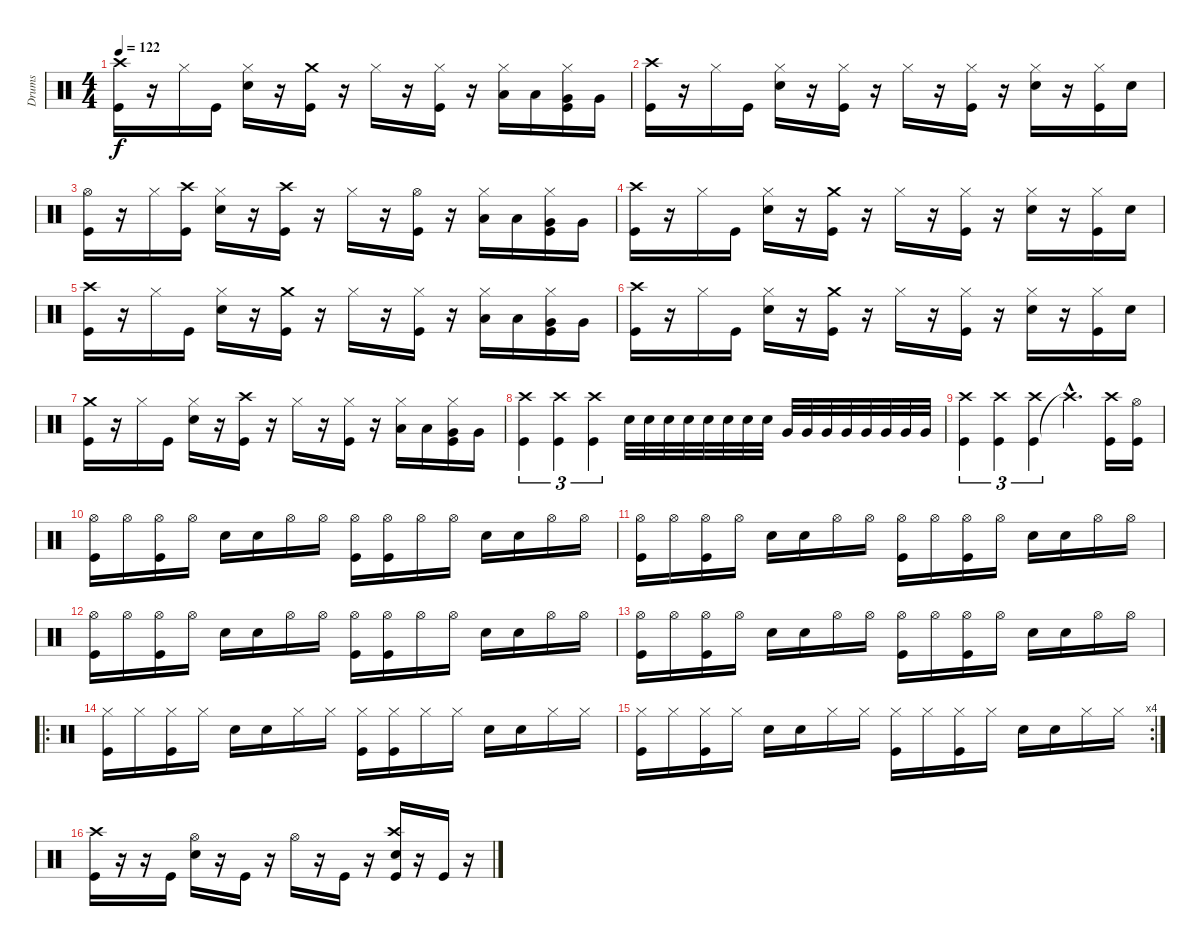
\track ("Drums" "Drums") {instrument percussion}
\staff {score}
\articulation defaults
\ts (4 4)
\tempo 122
\clef neutral
\ks c
("Kick (hit)" "Crash high (hit)").16{dy f} r.16 "Hi-Hat (closed)".16 "Kick (hit)".16 ("Snare (hit) 2" "Hi-Hat (closed)").16 r.16 ("Kick (hit)" "Crash medium (hit)").16 r.16 "Hi-Hat (closed)".16 r.16 ("Kick (hit)" "Hi-Hat (closed)").16 r.16 ("Low Tom (hit)" "Hi-Hat (closed)").16 "Low Tom (hit)".16 ("Very Low Tom (hit)" "Kick (hit)" "Hi-Hat (closed)").16 "Very Low Tom (hit)".16 |
("Kick (hit)" "Crash high (hit)").16 r.16 "Hi-Hat (closed)".16 "Kick (hit)".16 ("Snare (hit) 2" "Hi-Hat (closed)").16 r.16 ("Kick (hit)" "Hi-Hat (closed)").16 r.16 "Hi-Hat (closed)".16 r.16 ("Kick (hit)" "Hi-Hat (closed)").16 r.16 ("Snare (hit) 2" "Hi-Hat (closed)").16 r.16 ("Kick (hit)" "Hi-Hat (closed)").16 "Snare (hit) 2".16 |
("Kick (hit)" "Hi-Hat (open)").16 r.16 "Hi-Hat (closed)".16 ("Kick (hit)" "Crash high (hit)").16 ("Snare (hit) 2" "Hi-Hat (closed)").16 r.16 ("Kick (hit)" "Crash high (hit)").16 r.16 "Hi-Hat (closed)".16 r.16 ("Kick (hit)" "Hi-Hat (open)").16 r.16 ("Low Tom (hit)" "Hi-Hat (closed)").16 "Low Tom (hit)".16 ("Very Low Tom (hit)" "Kick (hit)" "Hi-Hat (closed)").16 "Very Low Tom (hit)".16 |
("Kick (hit)" "Crash high (hit)").16 r.16 "Hi-Hat (closed)".16 "Kick (hit)".16 ("Snare (hit) 2" "Hi-Hat (closed)").16 r.16 ("Kick (hit)" "Crash medium (hit)").16 r.16 "Hi-Hat (closed)".16 r.16 ("Kick (hit)" "Hi-Hat (closed)").16 r.16 ("Snare (hit) 2" "Hi-Hat (closed)").16 r.16 ("Kick (hit)" "Hi-Hat (closed)").16 "Snare (hit) 2".16 |
("Kick (hit)" "Crash high (hit)").16 r.16 "Hi-Hat (closed)".16 "Kick (hit)".16 ("Snare (hit) 2" "Hi-Hat (closed)").16 r.16 ("Kick (hit)" "Crash medium (hit)").16 r.16 "Hi-Hat (closed)".16 r.16 ("Kick (hit)" "Hi-Hat (closed)").16 r.16 ("Low Tom (hit)" "Hi-Hat (closed)").16 "Low Tom (hit)".16 ("Very Low Tom (hit)" "Kick (hit)" "Hi-Hat (closed)").16 "Very Low Tom (hit)".16 |
("Kick (hit)" "Crash high (hit)").16 r.16 "Hi-Hat (closed)".16 "Kick (hit)".16 ("Snare (hit) 2" "Hi-Hat (closed)").16 r.16 ("Kick (hit)" "Crash medium (hit)").16 r.16 "Hi-Hat (closed)".16 r.16 ("Kick (hit)" "Hi-Hat (closed)").16 r.16 ("Snare (hit) 2" "Hi-Hat (closed)").16 r.16 ("Kick (hit)" "Hi-Hat (closed)").16 "Snare (hit) 2".16 |
("Kick (hit)" "Crash medium (hit)").16 r.16 "Hi-Hat (closed)".16 "Kick (hit)".16 ("Snare (hit) 2" "Hi-Hat (closed)").16 r.16 ("Kick (hit)" "Crash high (hit)").16 r.16 "Hi-Hat (closed)".16 r.16 ("Kick (hit)" "Hi-Hat (closed)").16 r.16 ("Low Tom (hit)" "Hi-Hat (closed)").16 "Low Tom (hit)".16 ("Very Low Tom (hit)" "Kick (hit)" "Hi-Hat (closed)").16 "Very Low Tom (hit)".16 |
("Kick (hit)" "Crash high (hit)").4{tu (3 2)} ("Kick (hit)" "Crash high (hit)").4{tu (3 2)} ("Kick (hit)" "Crash high (hit)").4{tu (3 2)} "Snare (hit) 2".32 "Snare (hit) 2".32 "Snare (hit) 2".32 "Snare (hit) 2".32 "Snare (hit) 2".32 "Snare (hit) 2".32 "Snare (hit) 2".32 "Snare (hit) 2".32 "Very Low Tom (hit)".32 "Very Low Tom (hit)".32 "Very Low Tom (hit)".32 "Very Low Tom (hit)".32 "Very Low Tom (hit)".32 "Very Low Tom (hit)".32 "Very Low Tom (hit)".32 "Very Low Tom (hit)".32 |
("Kick (hit)" "Crash high (hit)").4{tu (3 2)} ("Kick (hit)" "Crash high (hit)").4{tu (3 2)} ("Kick (hit)" "Crash high (hit)").4{tu (3 2)} "Crash high (hit)"{hac t}.4{d} ("Kick (hit)" "Crash high (hit)").16 ("Kick (hit)" "Hi-Hat (open)").16 |
("Kick (hit)" "Hi-Hat (open)").16 "Hi-Hat (open)".16 ("Kick (hit)" "Hi-Hat (open)").16 "Hi-Hat (open)".16 "Snare (hit) 2".16 "Snare (hit) 2".16 "Hi-Hat (open)".16 "Hi-Hat (open)".16 ("Kick (hit)" "Hi-Hat (open)").16 ("Kick (hit)" "Hi-Hat (open)").16 "Hi-Hat (open)".16 "Hi-Hat (open)".16 "Snare (hit) 2".16 "Snare (hit) 2".16 "Hi-Hat (open)".16 "Hi-Hat (open)".16 |
("Kick (hit)" "Hi-Hat (open)").16 "Hi-Hat (open)".16 ("Kick (hit)" "Hi-Hat (open)").16 "Hi-Hat (open)".16 "Snare (hit) 2".16 "Snare (hit) 2".16 "Hi-Hat (open)".16 "Hi-Hat (open)".16 ("Kick (hit)" "Hi-Hat (open)").16 "Hi-Hat (open)".16 ("Kick (hit)" "Hi-Hat (open)").16 "Hi-Hat (open)".16 "Snare (hit) 2".16 "Snare (hit) 2".16 "Hi-Hat (open)".16 "Hi-Hat (open)".16 |
("Kick (hit)" "Hi-Hat (open)").16 "Hi-Hat (open)".16 ("Kick (hit)" "Hi-Hat (open)").16 "Hi-Hat (open)".16 "Snare (hit) 2".16 "Snare (hit) 2".16 "Hi-Hat (open)".16 "Hi-Hat (open)".16 ("Kick (hit)" "Hi-Hat (open)").16 ("Kick (hit)" "Hi-Hat (open)").16 "Hi-Hat (open)".16 "Hi-Hat (open)".16 "Snare (hit) 2".16 "Snare (hit) 2".16 "Hi-Hat (open)".16 "Hi-Hat (open)".16 |
("Kick (hit)" "Hi-Hat (open)").16 "Hi-Hat (open)".16 ("Kick (hit)" "Hi-Hat (open)").16 "Hi-Hat (open)".16 "Snare (hit) 2".16 "Snare (hit) 2".16 "Hi-Hat (open)".16 "Hi-Hat (open)".16 ("Kick (hit)" "Hi-Hat (open)").16 "Hi-Hat (open)".16 ("Kick (hit)" "Hi-Hat (open)").16 "Hi-Hat (open)".16 "Snare (hit) 2".16 "Snare (hit) 2".16 "Hi-Hat (open)".16 "Hi-Hat (open)".16 |
\ro
("Kick (hit)" "Hi-Hat (closed)").16 "Hi-Hat (closed)".16 ("Kick (hit)" "Hi-Hat (closed)").16 "Hi-Hat (closed)".16 "Snare (hit) 2".16 "Snare (hit) 2".16 "Hi-Hat (closed)".16 "Hi-Hat (closed)".16 ("Kick (hit)" "Hi-Hat (closed)").16 ("Kick (hit)" "Hi-Hat (closed)").16 "Hi-Hat (closed)".16 "Hi-Hat (closed)".16 "Snare (hit) 2".16 "Snare (hit) 2".16 "Hi-Hat (closed)".16 "Hi-Hat (closed)".16 |
\rc 4
("Kick (hit)" "Hi-Hat (closed)").16 "Hi-Hat (closed)".16 ("Kick (hit)" "Hi-Hat (closed)").16 "Hi-Hat (closed)".16 "Snare (hit) 2".16 "Snare (hit) 2".16 "Hi-Hat (closed)".16 "Hi-Hat (closed)".16 ("Kick (hit)" "Hi-Hat (closed)").16 "Hi-Hat (closed)".16 ("Kick (hit)" "Hi-Hat (closed)").16 "Hi-Hat (closed)".16 "Snare (hit) 2".16 "Snare (hit) 2".16 "Hi-Hat (closed)".16 "Hi-Hat (closed)".16 |
("Kick (hit)" "Crash high (hit)").16 r.16 r.16 "Kick (hit)".16 ("Snare (hit) 2" "Hi-Hat (open)").16 r.16 "Kick (hit)".16 r.16 "Hi-Hat (open)".16 r.16 "Kick (hit)".16 r.16 ("Snare (hit) 2" "Kick (hit)" "Crash high (hit)").16 r.16 "Kick (hit)".16 r.16
